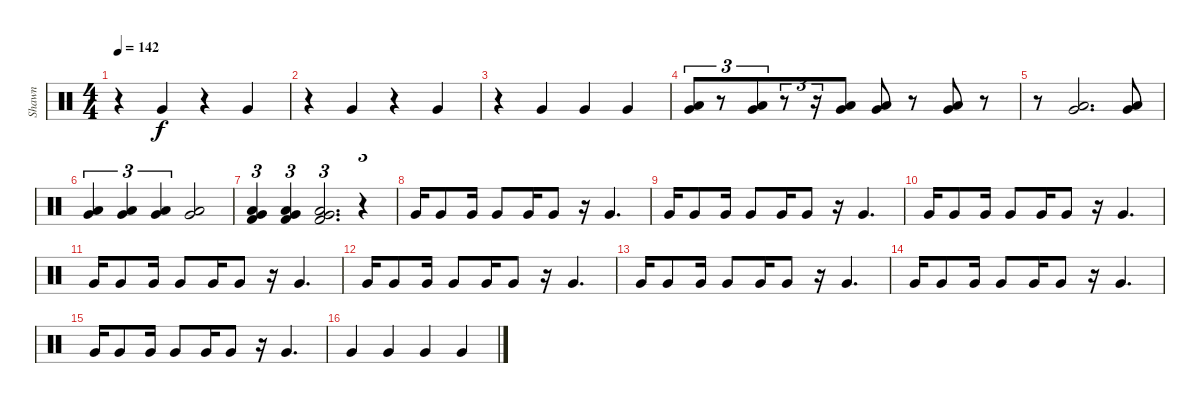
\track ("Shawn" "Shawn") {instrument percussion}
\staff {score}
\articulation defaults
\ts (4 4)
\tempo 142
\clef neutral
\ks c
r.4{dy f} "Very Low Tom (hit)".4 r.4 "Very Low Tom (hit)".4 |
r.4 "Very Low Tom (hit)".4 r.4 "Very Low Tom (hit)".4 |
r.4 "Very Low Tom (hit)".4 "Very Low Tom (hit)".4 "Very Low Tom (hit)".4 |
("Very Low Tom (hit)" "Low Floor Tom (hit)").8{tu (3 2)} r.8{tu (3 2)} ("Very Low Tom (hit)" "Low Floor Tom (hit)").8{tu (3 2) beam merge} r.8{tu (3 2)} r.16{tu (3 2)} ("Very Low Tom (hit)" "Low Floor Tom (hit)").8 ("Very Low Tom (hit)" "Low Floor Tom (hit)").8 r.8 ("Very Low Tom (hit)" "Low Floor Tom (hit)").8 r.8 |
r.8 ("Very Low Tom (hit)" "Low Floor Tom (hit)").2{d} ("Very Low Tom (hit)" "Low Floor Tom (hit)").8 |
("Very Low Tom (hit)" "Low Floor Tom (hit)").4{tu (3 2)} ("Very Low Tom (hit)" "Low Floor Tom (hit)").4{tu (3 2)} ("Very Low Tom (hit)" "Low Floor Tom (hit)").4{tu (3 2)} ("Very Low Tom (hit)" "Low Floor Tom (hit)").2 |
("Very Low Tom (hit)" "Low Floor Tom (hit)" "Kick (hit) 2").4{tu (3 2)} ("Very Low Tom (hit)" "Low Floor Tom (hit)" "Kick (hit) 2").4{tu (3 2)} ("Very Low Tom (hit)" "Low Floor Tom (hit)" "Kick (hit) 2").2{d tu (3 2)} r.4{tu (3 2)} |
"Very Low Tom (hit)".16 "Very Low Tom (hit)".8 "Very Low Tom (hit)".16 "Very Low Tom (hit)".8 "Very Low Tom (hit)".16 "Very Low Tom (hit)".8 r.16 "Very Low Tom (hit)".4{d} |
"Very Low Tom (hit)".16 "Very Low Tom (hit)".8 "Very Low Tom (hit)".16 "Very Low Tom (hit)".8 "Very Low Tom (hit)".16 "Very Low Tom (hit)".8 r.16 "Very Low Tom (hit)".4{d} |
"Very Low Tom (hit)".16 "Very Low Tom (hit)".8 "Very Low Tom (hit)".16 "Very Low Tom (hit)".8 "Very Low Tom (hit)".16 "Very Low Tom (hit)".8 r.16 "Very Low Tom (hit)".4{d} |
"Very Low Tom (hit)".16 "Very Low Tom (hit)".8 "Very Low Tom (hit)".16 "Very Low Tom (hit)".8 "Very Low Tom (hit)".16 "Very Low Tom (hit)".8 r.16 "Very Low Tom (hit)".4{d} |
"Very Low Tom (hit)".16 "Very Low Tom (hit)".8 "Very Low Tom (hit)".16 "Very Low Tom (hit)".8 "Very Low Tom (hit)".16 "Very Low Tom (hit)".8 r.16 "Very Low Tom (hit)".4{d} |
"Very Low Tom (hit)".16 "Very Low Tom (hit)".8 "Very Low Tom (hit)".16 "Very Low Tom (hit)".8 "Very Low Tom (hit)".16 "Very Low Tom (hit)".8 r.16 "Very Low Tom (hit)".4{d} |
"Very Low Tom (hit)".16 "Very Low Tom (hit)".8 "Very Low Tom (hit)".16 "Very Low Tom (hit)".8 "Very Low Tom (hit)".16 "Very Low Tom (hit)".8 r.16 "Very Low Tom (hit)".4{d} |
"Very Low Tom (hit)".16 "Very Low Tom (hit)".8 "Very Low Tom (hit)".16 "Very Low Tom (hit)".8 "Very Low Tom (hit)".16 "Very Low Tom (hit)".8 r.16 "Very Low Tom (hit)".4{d} |
"Very Low Tom (hit)".4 "Very Low Tom (hit)".4 "Very Low Tom (hit)".4 "Very Low Tom (hit)".4
